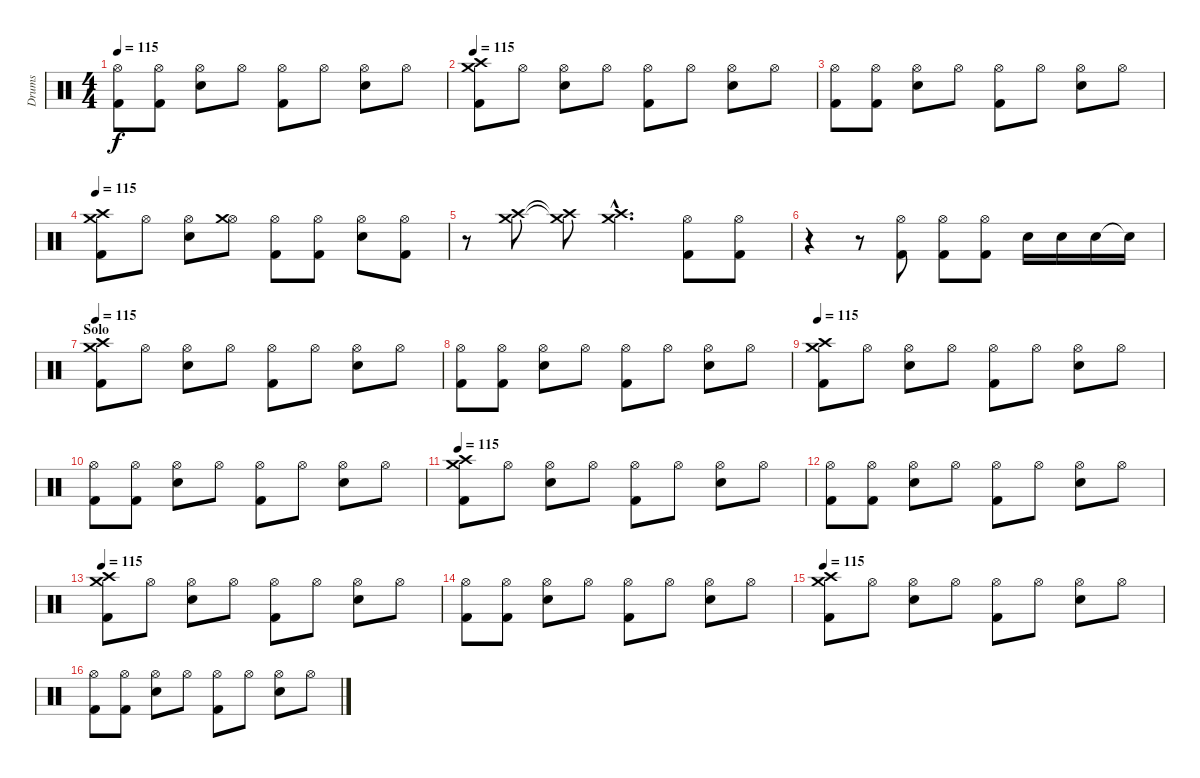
\track ("Drums" "Drums") {instrument percussion}
\staff {score}
\articulation defaults
\ts (4 4)
\tempo 115
\clef neutral
\ks c
("Hi-Hat (open)" "Kick (hit) 2").8{dy f} ("Hi-Hat (open)" "Kick (hit) 2").8 ("Hi-Hat (open)" "Electric Snare (hit)").8 "Hi-Hat (open)".8 ("Hi-Hat (open)" "Kick (hit) 2").8 "Hi-Hat (open)".8 ("Hi-Hat (open)" "Electric Snare (hit)").8 "Hi-Hat (open)".8 |
\tempo 115
("Crash high (hit)" "Crash medium (hit)" "Kick (hit) 2").8 "Hi-Hat (open)".8 ("Hi-Hat (open)" "Electric Snare (hit)").8 "Hi-Hat (open)".8 ("Hi-Hat (open)" "Kick (hit) 2").8 "Hi-Hat (open)".8 ("Hi-Hat (open)" "Electric Snare (hit)").8 "Hi-Hat (open)".8 |
("Hi-Hat (open)" "Kick (hit) 2").8 ("Hi-Hat (open)" "Kick (hit) 2").8 ("Hi-Hat (open)" "Electric Snare (hit)").8 "Hi-Hat (open)".8 ("Hi-Hat (open)" "Kick (hit) 2").8 "Hi-Hat (open)".8 ("Hi-Hat (open)" "Electric Snare (hit)").8 "Hi-Hat (open)".8 |
\tempo 115
("Crash high (hit)" "Crash medium (hit)" "Kick (hit) 2").8 "Hi-Hat (open)".8 ("Hi-Hat (open)" "Electric Snare (hit)").8 ("Hi-Hat (open)" "Crash medium (hit)").8 ("Hi-Hat (open)" "Kick (hit) 2").8 ("Hi-Hat (open)" "Kick (hit) 2").8 ("Hi-Hat (open)" "Electric Snare (hit)").8 ("Hi-Hat (open)" "Kick (hit) 2").8 |
r.8 ("Crash high (hit)" "Crash medium (hit)").8 ("Crash high (hit)"{t} "Crash medium (hit)"{t}).8 ("Crash high (hit)"{hac} "Crash medium (hit)"{hac}).4{d} ("Hi-Hat (open)" "Kick (hit) 2").8 ("Hi-Hat (open)" "Kick (hit) 2").8 |
r.4 r.8 ("Hi-Hat (open)" "Kick (hit) 2").8 ("Hi-Hat (open)" "Kick (hit) 2").8 ("Hi-Hat (open)" "Kick (hit) 2").8 "Electric Snare (hit)".16 "Electric Snare (hit)".16 "Electric Snare (hit)".16 "Electric Snare (hit)"{t}.16 |
\section ("" "Solo")
\tempo 115
("Crash high (hit)" "Crash medium (hit)" "Kick (hit) 2").8 "Hi-Hat (open)".8 ("Hi-Hat (open)" "Electric Snare (hit)").8 "Hi-Hat (open)".8 ("Hi-Hat (open)" "Kick (hit) 2").8 "Hi-Hat (open)".8 ("Hi-Hat (open)" "Electric Snare (hit)").8 "Hi-Hat (open)".8 |
("Hi-Hat (open)" "Kick (hit) 2").8 ("Hi-Hat (open)" "Kick (hit) 2").8 ("Hi-Hat (open)" "Electric Snare (hit)").8 "Hi-Hat (open)".8 ("Hi-Hat (open)" "Kick (hit) 2").8 "Hi-Hat (open)".8 ("Hi-Hat (open)" "Electric Snare (hit)").8 "Hi-Hat (open)".8 |
\tempo 115
("Crash high (hit)" "Crash medium (hit)" "Kick (hit) 2").8 "Hi-Hat (open)".8 ("Hi-Hat (open)" "Electric Snare (hit)").8 "Hi-Hat (open)".8 ("Hi-Hat (open)" "Kick (hit) 2").8 "Hi-Hat (open)".8 ("Hi-Hat (open)" "Electric Snare (hit)").8 "Hi-Hat (open)".8 |
("Hi-Hat (open)" "Kick (hit) 2").8 ("Hi-Hat (open)" "Kick (hit) 2").8 ("Hi-Hat (open)" "Electric Snare (hit)").8 "Hi-Hat (open)".8 ("Hi-Hat (open)" "Kick (hit) 2").8 "Hi-Hat (open)".8 ("Hi-Hat (open)" "Electric Snare (hit)").8 "Hi-Hat (open)".8 |
\tempo 115
("Crash high (hit)" "Crash medium (hit)" "Kick (hit) 2").8 "Hi-Hat (open)".8 ("Hi-Hat (open)" "Electric Snare (hit)").8 "Hi-Hat (open)".8 ("Hi-Hat (open)" "Kick (hit) 2").8 "Hi-Hat (open)".8 ("Hi-Hat (open)" "Electric Snare (hit)").8 "Hi-Hat (open)".8 |
("Hi-Hat (open)" "Kick (hit) 2").8 ("Hi-Hat (open)" "Kick (hit) 2").8 ("Hi-Hat (open)" "Electric Snare (hit)").8 "Hi-Hat (open)".8 ("Hi-Hat (open)" "Kick (hit) 2").8 "Hi-Hat (open)".8 ("Hi-Hat (open)" "Electric Snare (hit)").8 "Hi-Hat (open)".8 |
\tempo 115
("Crash high (hit)" "Crash medium (hit)" "Kick (hit) 2").8 "Hi-Hat (open)".8 ("Hi-Hat (open)" "Electric Snare (hit)").8 "Hi-Hat (open)".8 ("Hi-Hat (open)" "Kick (hit) 2").8 "Hi-Hat (open)".8 ("Hi-Hat (open)" "Electric Snare (hit)").8 "Hi-Hat (open)".8 |
("Hi-Hat (open)" "Kick (hit) 2").8 ("Hi-Hat (open)" "Kick (hit) 2").8 ("Hi-Hat (open)" "Electric Snare (hit)").8 "Hi-Hat (open)".8 ("Hi-Hat (open)" "Kick (hit) 2").8 "Hi-Hat (open)".8 ("Hi-Hat (open)" "Electric Snare (hit)").8 "Hi-Hat (open)".8 |
\tempo 115
("Crash high (hit)" "Crash medium (hit)" "Kick (hit) 2").8 "Hi-Hat (open)".8 ("Hi-Hat (open)" "Electric Snare (hit)").8 "Hi-Hat (open)".8 ("Hi-Hat (open)" "Kick (hit) 2").8 "Hi-Hat (open)".8 ("Hi-Hat (open)" "Electric Snare (hit)").8 "Hi-Hat (open)".8 |
("Hi-Hat (open)" "Kick (hit) 2").8 ("Hi-Hat (open)" "Kick (hit) 2").8 ("Hi-Hat (open)" "Electric Snare (hit)").8 "Hi-Hat (open)".8 ("Hi-Hat (open)" "Kick (hit) 2").8 "Hi-Hat (open)".8 ("Hi-Hat (open)" "Electric Snare (hit)").8 "Hi-Hat (open)".8
